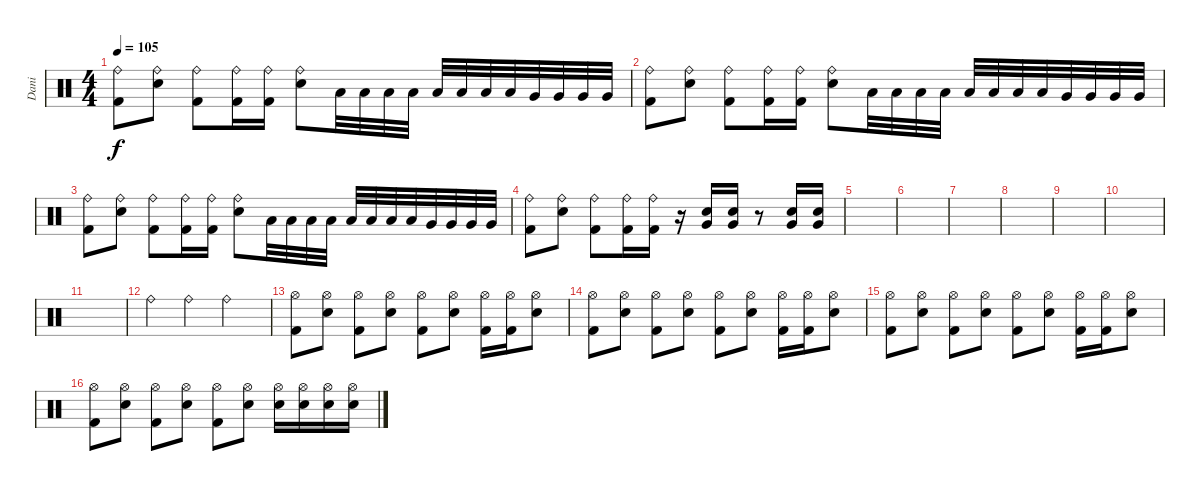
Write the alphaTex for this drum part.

\track ("Dani" "Dani") {instrument percussion}
\staff {score}
\articulation defaults
\ts (4 4)
\tempo 105
\clef neutral
\ks c
("Kick (hit) 2" "Ride (bell)").8{dy f} ("Snare (hit) 2" "Ride (bell)").8 ("Kick (hit) 2" "Ride (bell)").8 ("Kick (hit) 2" "Ride (bell)").16 ("Kick (hit) 2" "Ride (bell)").16 ("Snare (hit) 2" "Ride (bell)").8 "Low Tom (hit)".32 "Low Tom (hit)".32 "Low Tom (hit)".32 "Low Tom (hit)".32 "Low Tom (hit)".32 "Low Tom (hit)".32 "Low Tom (hit)".32 "Low Tom (hit)".32 "Very Low Tom (hit)".32 "Very Low Tom (hit)".32 "Very Low Tom (hit)".32 "Very Low Tom (hit)".32 |
("Kick (hit) 2" "Ride (bell)").8 ("Snare (hit) 2" "Ride (bell)").8 ("Kick (hit) 2" "Ride (bell)").8 ("Kick (hit) 2" "Ride (bell)").16 ("Kick (hit) 2" "Ride (bell)").16 ("Snare (hit) 2" "Ride (bell)").8 "Low Tom (hit)".32 "Low Tom (hit)".32 "Low Tom (hit)".32 "Low Tom (hit)".32 "Low Tom (hit)".32 "Low Tom (hit)".32 "Low Tom (hit)".32 "Low Tom (hit)".32 "Very Low Tom (hit)".32 "Very Low Tom (hit)".32 "Very Low Tom (hit)".32 "Very Low Tom (hit)".32 |
("Kick (hit) 2" "Ride (bell)").8 ("Snare (hit) 2" "Ride (bell)").8 ("Kick (hit) 2" "Ride (bell)").8 ("Kick (hit) 2" "Ride (bell)").16 ("Kick (hit) 2" "Ride (bell)").16 ("Snare (hit) 2" "Ride (bell)").8 "Low Tom (hit)".32 "Low Tom (hit)".32 "Low Tom (hit)".32 "Low Tom (hit)".32 "Low Tom (hit)".32 "Low Tom (hit)".32 "Low Tom (hit)".32 "Low Tom (hit)".32 "Very Low Tom (hit)".32 "Very Low Tom (hit)".32 "Very Low Tom (hit)".32 "Very Low Tom (hit)".32 |
("Kick (hit) 2" "Ride (bell)").8 ("Snare (hit) 2" "Ride (bell)").8 ("Kick (hit) 2" "Ride (bell)").8 ("Kick (hit) 2" "Ride (bell)").16 ("Kick (hit) 2" "Ride (bell)").16 r.16 ("Snare (hit) 2" "Very Low Tom (hit)").16{volume 16} ("Snare (hit) 2" "Very Low Tom (hit)").16 r.8 ("Snare (hit) 2" "Very Low Tom (hit)").16 ("Snare (hit) 2" "Very Low Tom (hit)").16 |
|
|
|
|
|
|
|
"Ride (bell)".4 "Ride (bell)".4 "Ride (bell)".2 |
("Kick (hit) 2" "Hi-Hat (open)").8{volume 13} ("Snare (hit) 2" "Hi-Hat (open)").8 ("Kick (hit) 2" "Hi-Hat (open)").8 ("Snare (hit) 2" "Hi-Hat (open)").8 ("Kick (hit) 2" "Hi-Hat (open)").8 ("Snare (hit) 2" "Hi-Hat (open)").8 ("Kick (hit) 2" "Hi-Hat (open)").16 ("Kick (hit) 2" "Hi-Hat (open)").16 ("Snare (hit) 2" "Hi-Hat (open)").8 |
("Kick (hit) 2" "Hi-Hat (open)").8 ("Snare (hit) 2" "Hi-Hat (open)").8 ("Kick (hit) 2" "Hi-Hat (open)").8 ("Snare (hit) 2" "Hi-Hat (open)").8 ("Kick (hit) 2" "Hi-Hat (open)").8 ("Snare (hit) 2" "Hi-Hat (open)").8 ("Kick (hit) 2" "Hi-Hat (open)").16 ("Kick (hit) 2" "Hi-Hat (open)").16 ("Snare (hit) 2" "Hi-Hat (open)").8 |
("Kick (hit) 2" "Hi-Hat (open)").8 ("Snare (hit) 2" "Hi-Hat (open)").8 ("Kick (hit) 2" "Hi-Hat (open)").8 ("Snare (hit) 2" "Hi-Hat (open)").8 ("Kick (hit) 2" "Hi-Hat (open)").8 ("Snare (hit) 2" "Hi-Hat (open)").8 ("Kick (hit) 2" "Hi-Hat (open)").16 ("Kick (hit) 2" "Hi-Hat (open)").16 ("Snare (hit) 2" "Hi-Hat (open)").8 |
("Kick (hit) 2" "Hi-Hat (open)").8 ("Snare (hit) 2" "Hi-Hat (open)").8 ("Kick (hit) 2" "Hi-Hat (open)").8 ("Snare (hit) 2" "Hi-Hat (open)").8 ("Kick (hit) 2" "Hi-Hat (open)").8 ("Snare (hit) 2" "Hi-Hat (open)").8 ("Snare (hit) 2" "Hi-Hat (open)").16 ("Snare (hit) 2" "Hi-Hat (open)").16 ("Snare (hit) 2" "Hi-Hat (open)").16 ("Snare (hit) 2" "Hi-Hat (open)").16
